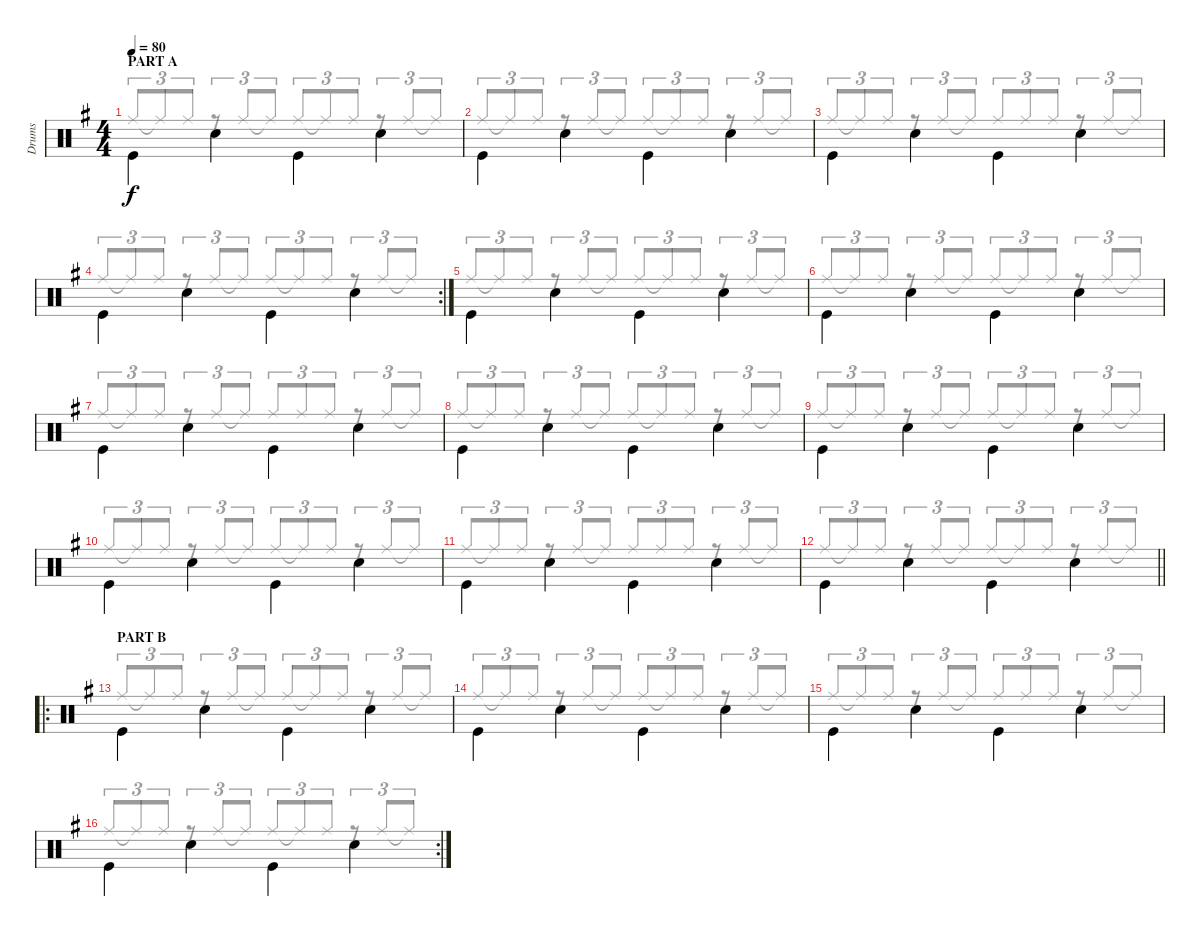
\track ("Drums" "Drums") {instrument percussion}
\staff {score}
\articulation defaults
\voice
\ts (4 4)
\section ("" "PART A")
\tempo 80
\clef neutral
\ks g "Kick (hit)".4{dy f beam Down} "Snare (hit) 2".4{beam Down} "Kick (hit)".4{beam Down} "Snare (hit) 2".4{beam Down}
|
"Kick (hit)".4{beam Down} "Snare (hit) 2".4{beam Down} "Kick (hit)".4{beam Down} "Snare (hit) 2".4{beam Down} |
"Kick (hit)".4{beam Down} "Snare (hit) 2".4{beam Down} "Kick (hit)".4{beam Down} "Snare (hit) 2".4{beam Down} |
\rc 2 "Kick (hit)".4{beam Down} "Snare (hit) 2".4{beam Down} "Kick (hit)".4{beam Down} "Snare (hit) 2".4{beam Down}
|
"Kick (hit)".4{beam Down} "Snare (hit) 2".4{beam Down} "Kick (hit)".4{beam Down} "Snare (hit) 2".4{beam Down} |
"Kick (hit)".4{beam Down} "Snare (hit) 2".4{beam Down} "Kick (hit)".4{beam Down} "Snare (hit) 2".4{beam Down} |
"Kick (hit)".4{beam Down} "Snare (hit) 2".4{beam Down} "Kick (hit)".4{beam Down} "Snare (hit) 2".4{beam Down} |
"Kick (hit)".4{beam Down} "Snare (hit) 2".4{beam Down} "Kick (hit)".4{beam Down} "Snare (hit) 2".4{beam Down} |
"Kick (hit)".4{beam Down} "Snare (hit) 2".4{beam Down} "Kick (hit)".4{beam Down} "Snare (hit) 2".4{beam Down} |
"Kick (hit)".4{beam Down} "Snare (hit) 2".4{beam Down} "Kick (hit)".4{beam Down} "Snare (hit) 2".4{beam Down} |
"Kick (hit)".4{beam Down} "Snare (hit) 2".4{beam Down} "Kick (hit)".4{beam Down} "Snare (hit) 2".4{beam Down} |
\barLineRight lightlight "Kick (hit)".4{beam Down} "Snare (hit) 2".4{beam Down} "Kick (hit)".4{beam Down} "Snare (hit) 2".4{beam Down}
|
\ro
\section ("" "PART B")
"Kick (hit)".4{beam Down} "Snare (hit) 2".4{beam Down} "Kick (hit)".4{beam Down} "Snare (hit) 2".4{beam Down} |
"Kick (hit)".4{beam Down} "Snare (hit) 2".4{beam Down} "Kick (hit)".4{beam Down} "Snare (hit) 2".4{beam Down} |
"Kick (hit)".4{beam Down} "Snare (hit) 2".4{beam Down} "Kick (hit)".4{beam Down} "Snare (hit) 2".4{beam Down} |
\rc 2 "Kick (hit)".4{beam Down} "Snare (hit) 2".4{beam Down} "Kick (hit)".4{beam Down} "Snare (hit) 2".4{beam Down}
\voice
\clef neutral
\ottava regular
\simile none
\ks g "Ride (middle)".8{tu (3 2) dy f beam Up} "Ride (middle)"{t}.8{tu (3 2) beam Up} "Ride (middle)".8{tu (3 2) beam Up}
r.8{tu (3 2) beam Up} "Ride (middle)".8{tu (3 2) beam Up} "Ride (middle)"{t}.8{tu (3 2) beam Up} "Ride (middle)".8{tu (3 2) beam Up} "Ride (middle)"{t}.8{tu (3 2) beam Up} "Ride (middle)".8{tu (3 2) beam Up} r.8{tu (3 2) beam Up} "Ride (middle)".8{tu (3 2) beam Up} "Ride (middle)"{t}.8{tu (3 2) beam Up} |
"Ride (middle)".8{tu (3 2) beam Up} "Ride (middle)"{t}.8{tu (3 2) beam Up} "Ride (middle)".8{tu (3 2) beam Up} r.8{tu (3 2) beam Up} "Ride (middle)".8{tu (3 2) beam Up} "Ride (middle)"{t}.8{tu (3 2) beam Up} "Ride (middle)".8{tu (3 2) beam Up} "Ride (middle)"{t}.8{tu (3 2) beam Up} "Ride (middle)".8{tu (3 2) beam Up} r.8{tu (3 2) beam Up} "Ride (middle)".8{tu (3 2) beam Up} "Ride (middle)"{t}.8{tu (3 2) beam Up} |
"Ride (middle)".8{tu (3 2) beam Up} "Ride (middle)"{t}.8{tu (3 2) beam Up} "Ride (middle)".8{tu (3 2) beam Up} r.8{tu (3 2) beam Up} "Ride (middle)".8{tu (3 2) beam Up} "Ride (middle)"{t}.8{tu (3 2) beam Up} "Ride (middle)".8{tu (3 2) beam Up} "Ride (middle)".8{tu (3 2) beam Up} "Ride (middle)".8{tu (3 2) beam Up} r.8{tu (3 2) beam Up} "Ride (middle)".8{tu (3 2) beam Up} "Ride (middle)"{t}.8{tu (3 2) beam Up} |
"Ride (middle)".8{tu (3 2) beam Up} "Ride (middle)"{t}.8{tu (3 2) beam Up} "Ride (middle)".8{tu (3 2) beam Up} r.8{tu (3 2) beam Up} "Ride (middle)".8{tu (3 2) beam Up} "Ride (middle)"{t}.8{tu (3 2) beam Up} "Ride (middle)".8{tu (3 2) beam Up} "Ride (middle)"{t}.8{tu (3 2) beam Up} "Ride (middle)".8{tu (3 2) beam Up} r.8{tu (3 2) beam Up} "Ride (middle)".8{tu (3 2) beam Up} "Ride (middle)"{t}.8{tu (3 2) beam Up} |
"Ride (middle)".8{tu (3 2) beam Up} "Ride (middle)"{t}.8{tu (3 2) beam Up} "Ride (middle)".8{tu (3 2) beam Up} r.8{tu (3 2) beam Up} "Ride (middle)".8{tu (3 2) beam Up} "Ride (middle)"{t}.8{tu (3 2) beam Up} "Ride (middle)".8{tu (3 2) beam Up} "Ride (middle)"{t}.8{tu (3 2) beam Up} "Ride (middle)".8{tu (3 2) beam Up} r.8{tu (3 2) beam Up} "Ride (middle)".8{tu (3 2) beam Up} "Ride (middle)"{t}.8{tu (3 2) beam Up} |
"Ride (middle)".8{tu (3 2) beam Up} "Ride (middle)"{t}.8{tu (3 2) beam Up} "Ride (middle)".8{tu (3 2) beam Up} r.8{tu (3 2) beam Up} "Ride (middle)".8{tu (3 2) beam Up} "Ride (middle)"{t}.8{tu (3 2) beam Up} "Ride (middle)".8{tu (3 2) beam Up} "Ride (middle)"{t}.8{tu (3 2) beam Up} "Ride (middle)".8{tu (3 2) beam Up} r.8{tu (3 2) beam Up} "Ride (middle)".8{tu (3 2) beam Up} "Ride (middle)"{t}.8{tu (3 2) beam Up} |
"Ride (middle)".8{tu (3 2) beam Up} "Ride (middle)"{t}.8{tu (3 2) beam Up} "Ride (middle)".8{tu (3 2) beam Up} r.8{tu (3 2) beam Up} "Ride (middle)".8{tu (3 2) beam Up} "Ride (middle)"{t}.8{tu (3 2) beam Up} "Ride (middle)".8{tu (3 2) beam Up} "Ride (middle)".8{tu (3 2) beam Up} "Ride (middle)".8{tu (3 2) beam Up} r.8{tu (3 2) beam Up} "Ride (middle)".8{tu (3 2) beam Up} "Ride (middle)"{t}.8{tu (3 2) beam Up} |
"Ride (middle)".8{tu (3 2) beam Up} "Ride (middle)"{t}.8{tu (3 2) beam Up} "Ride (middle)".8{tu (3 2) beam Up} r.8{tu (3 2) beam Up} "Ride (middle)".8{tu (3 2) beam Up} "Ride (middle)"{t}.8{tu (3 2) beam Up} "Ride (middle)".8{tu (3 2) beam Up} "Ride (middle)"{t}.8{tu (3 2) beam Up} "Ride (middle)".8{tu (3 2) beam Up} r.8{tu (3 2) beam Up} "Ride (middle)".8{tu (3 2) beam Up} "Ride (middle)"{t}.8{tu (3 2) beam Up} |
"Ride (middle)".8{tu (3 2) beam Up} "Ride (middle)"{t}.8{tu (3 2) beam Up} "Ride (middle)".8{tu (3 2) beam Up} r.8{tu (3 2) beam Up} "Ride (middle)".8{tu (3 2) beam Up} "Ride (middle)"{t}.8{tu (3 2) beam Up} "Ride (middle)".8{tu (3 2) beam Up} "Ride (middle)"{t}.8{tu (3 2) beam Up} "Ride (middle)".8{tu (3 2) beam Up} r.8{tu (3 2) beam Up} "Ride (middle)".8{tu (3 2) beam Up} "Ride (middle)"{t}.8{tu (3 2) beam Up} |
"Ride (middle)".8{tu (3 2) beam Up} "Ride (middle)"{t}.8{tu (3 2) beam Up} "Ride (middle)".8{tu (3 2) beam Up} r.8{tu (3 2) beam Up} "Ride (middle)".8{tu (3 2) beam Up} "Ride (middle)"{t}.8{tu (3 2) beam Up} "Ride (middle)".8{tu (3 2) beam Up} "Ride (middle)"{t}.8{tu (3 2) beam Up} "Ride (middle)".8{tu (3 2) beam Up} r.8{tu (3 2) beam Up} "Ride (middle)".8{tu (3 2) beam Up} "Ride (middle)"{t}.8{tu (3 2) beam Up} |
"Ride (middle)".8{tu (3 2) beam Up} "Ride (middle)"{t}.8{tu (3 2) beam Up} "Ride (middle)".8{tu (3 2) beam Up} r.8{tu (3 2) beam Up} "Ride (middle)".8{tu (3 2) beam Up} "Ride (middle)"{t}.8{tu (3 2) beam Up} "Ride (middle)".8{tu (3 2) beam Up} "Ride (middle)".8{tu (3 2) beam Up} "Ride (middle)".8{tu (3 2) beam Up} r.8{tu (3 2) beam Up} "Ride (middle)".8{tu (3 2) beam Up} "Ride (middle)"{t}.8{tu (3 2) beam Up} |
\barLineRight lightlight "Ride (middle)".8{tu (3 2) beam Up} "Ride (middle)"{t}.8{tu (3 2) beam Up} "Ride (middle)".8{tu (3 2) beam Up}
r.8{tu (3 2) beam Up} "Ride (middle)".8{tu (3 2) beam Up} "Ride (middle)"{t}.8{tu (3 2) beam Up} "Ride (middle)".8{tu (3 2) beam Up} "Ride (middle)"{t}.8{tu (3 2) beam Up} "Ride (middle)".8{tu (3 2) beam Up} r.8{tu (3 2) beam Up} "Ride (middle)".8{tu (3 2) beam Up} "Ride (middle)"{t}.8{tu (3 2) beam Up} |
"Ride (middle)".8{tu (3 2) beam Up} "Ride (middle)"{t}.8{tu (3 2) beam Up} "Ride (middle)".8{tu (3 2) beam Up} r.8{tu (3 2) beam Up} "Ride (middle)".8{tu (3 2) beam Up} "Ride (middle)"{t}.8{tu (3 2) beam Up} "Ride (middle)".8{tu (3 2) beam Up} "Ride (middle)"{t}.8{tu (3 2) beam Up} "Ride (middle)".8{tu (3 2) beam Up} r.8{tu (3 2) beam Up} "Ride (middle)".8{tu (3 2) beam Up} "Ride (middle)"{t}.8{tu (3 2) beam Up} |
"Ride (middle)".8{tu (3 2) beam Up} "Ride (middle)"{t}.8{tu (3 2) beam Up} "Ride (middle)".8{tu (3 2) beam Up} r.8{tu (3 2) beam Up} "Ride (middle)".8{tu (3 2) beam Up} "Ride (middle)"{t}.8{tu (3 2) beam Up} "Ride (middle)".8{tu (3 2) beam Up} "Ride (middle)"{t}.8{tu (3 2) beam Up} "Ride (middle)".8{tu (3 2) beam Up} r.8{tu (3 2) beam Up} "Ride (middle)".8{tu (3 2) beam Up} "Ride (middle)"{t}.8{tu (3 2) beam Up} |
"Ride (middle)".8{tu (3 2) beam Up} "Ride (middle)"{t}.8{tu (3 2) beam Up} "Ride (middle)".8{tu (3 2) beam Up} r.8{tu (3 2) beam Up} "Ride (middle)".8{tu (3 2) beam Up} "Ride (middle)"{t}.8{tu (3 2) beam Up} "Ride (middle)".8{tu (3 2) beam Up} "Ride (middle)".8{tu (3 2) beam Up} "Ride (middle)".8{tu (3 2) beam Up} r.8{tu (3 2) beam Up} "Ride (middle)".8{tu (3 2) beam Up} "Ride (middle)"{t}.8{tu (3 2) beam Up} |
"Ride (middle)".8{tu (3 2) beam Up} "Ride (middle)"{t}.8{tu (3 2) beam Up} "Ride (middle)".8{tu (3 2) beam Up} r.8{tu (3 2) beam Up} "Ride (middle)".8{tu (3 2) beam Up} "Ride (middle)"{t}.8{tu (3 2) beam Up} "Ride (middle)".8{tu (3 2) beam Up} "Ride (middle)"{t}.8{tu (3 2) beam Up} "Ride (middle)".8{tu (3 2) beam Up} r.8{tu (3 2) beam Up} "Ride (middle)".8{tu (3 2) beam Up} "Ride (middle)"{t}.8{tu (3 2) beam Up}
